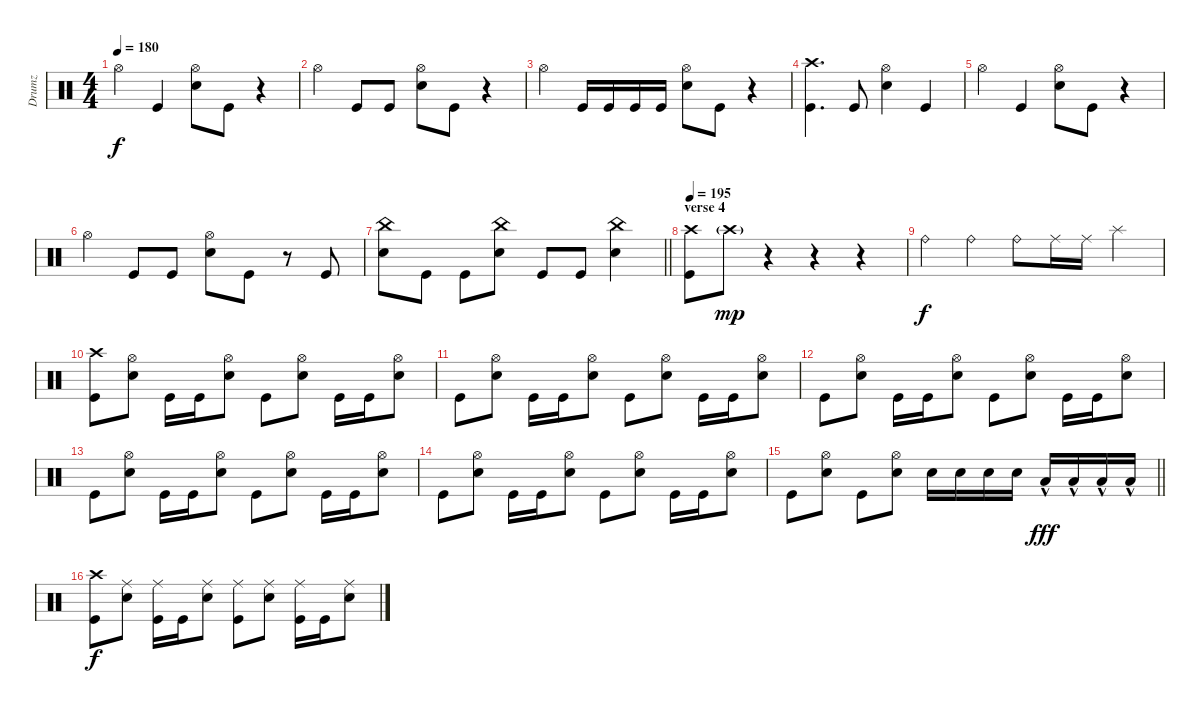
\track ("Drumz" "Drumz") {instrument percussion}
\staff {score}
\articulation defaults
\ts (4 4)
\tempo 180
\clef neutral
\ks c "Hi-Hat (open)".4{dy f} "Kick (hit)".4
("Hi-Hat (open)" "Electric Snare (hit)").8 "Kick (hit)".8 r.4 |
"Hi-Hat (open)".4 "Kick (hit)".8 "Kick (hit)".8 ("Hi-Hat (open)" "Electric Snare (hit)").8 "Kick (hit)".8 r.4 |
"Hi-Hat (open)".4 "Kick (hit)".16 "Kick (hit)".16 "Kick (hit)".16 "Kick (hit)".16 ("Hi-Hat (open)" "Electric Snare (hit)").8 "Kick (hit)".8 r.4 |
("Crash high (hit)" "Kick (hit)").4{d} "Kick (hit)".8 ("Hi-Hat (open)" "Electric Snare (hit)").4 "Kick (hit)".4 |
"Hi-Hat (open)".4 "Kick (hit)".4 ("Hi-Hat (open)" "Electric Snare (hit)").8 "Kick (hit)".8 r.4 |
"Hi-Hat (open)".4 "Kick (hit)".8 "Kick (hit)".8 ("Hi-Hat (open)" "Electric Snare (hit)").8 "Kick (hit)".8 r.8 "Kick (hit)".8 |
\barLineRight lightlight
("China (hit)" "Electric Snare (hit)").8 "Kick (hit)".8 "Kick (hit)".8 ("China (hit)" "Electric Snare (hit)").8 "Kick (hit)".8 "Kick (hit)".8 ("China (hit)" "Electric Snare (hit)").4 |
\section ("" "verse 4")
\tempo 195
("Crash high (hit)" "Kick (hit)").8 "Crash high (hit)"{g}.8{dy mp} r.4 r.4 r.4 |
"Ride (bell)".4{dy f} "Ride (bell)".4 "Ride (bell)".8 "Ride (middle)".16 "Ride (middle)".16 "Splash (hit)".4 |
("Crash high (hit)" "Kick (hit)").8 ("Hi-Hat (open)" "Electric Snare (hit)").8 "Kick (hit)".16 "Kick (hit)".16 ("Hi-Hat (open)" "Electric Snare (hit)").8 "Kick (hit)".8 ("Hi-Hat (open)" "Electric Snare (hit)").8 "Kick (hit)".16 "Kick (hit)".16 ("Hi-Hat (open)" "Electric Snare (hit)").8 |
"Kick (hit)".8 ("Hi-Hat (open)" "Electric Snare (hit)").8 "Kick (hit)".16 "Kick (hit)".16 ("Hi-Hat (open)" "Electric Snare (hit)").8 "Kick (hit)".8 ("Hi-Hat (open)" "Electric Snare (hit)").8 "Kick (hit)".16 "Kick (hit)".16 ("Hi-Hat (open)" "Electric Snare (hit)").8 |
"Kick (hit)".8 ("Hi-Hat (open)" "Electric Snare (hit)").8 "Kick (hit)".16 "Kick (hit)".16 ("Hi-Hat (open)" "Electric Snare (hit)").8 "Kick (hit)".8 ("Hi-Hat (open)" "Electric Snare (hit)").8 "Kick (hit)".16 "Kick (hit)".16 ("Hi-Hat (open)" "Electric Snare (hit)").8 |
"Kick (hit)".8 ("Hi-Hat (open)" "Electric Snare (hit)").8 "Kick (hit)".16 "Kick (hit)".16 ("Hi-Hat (open)" "Electric Snare (hit)").8 "Kick (hit)".8 ("Hi-Hat (open)" "Electric Snare (hit)").8 "Kick (hit)".16 "Kick (hit)".16 ("Hi-Hat (open)" "Electric Snare (hit)").8 |
"Kick (hit)".8 ("Hi-Hat (open)" "Electric Snare (hit)").8 "Kick (hit)".16 "Kick (hit)".16 ("Hi-Hat (open)" "Electric Snare (hit)").8 "Kick (hit)".8 ("Hi-Hat (open)" "Electric Snare (hit)").8 "Kick (hit)".16 "Kick (hit)".16 ("Hi-Hat (open)" "Electric Snare (hit)").8 |
\barLineRight lightlight "Kick (hit)".8
("Hi-Hat (open)" "Electric Snare (hit)").8 "Kick (hit)".8 ("Hi-Hat (open)" "Electric Snare (hit)").8 "Electric Snare (hit)".16 "Electric Snare (hit)".16 "Electric Snare (hit)".16 "Electric Snare (hit)".16 "Low Tom (hit)"{hac}.16{dy fff} "Low Tom (hit)"{hac}.16 "Low Tom (hit)"{hac}.16 "Low Tom (hit)"{hac}.16 |
\section ("" "")
("Crash high (hit)" "Kick (hit)").8{dy f} ("Ride (middle)" "Electric Snare (hit)").8 ("Ride (middle)" "Kick (hit)").16 "Kick (hit)".16 ("Ride (middle)" "Electric Snare (hit)").8 ("Ride (middle)" "Kick (hit)").8 ("Ride (middle)" "Electric Snare (hit)").8 ("Ride (middle)" "Kick (hit)").16 "Kick (hit)".16 ("Ride (middle)" "Electric Snare (hit)").8
